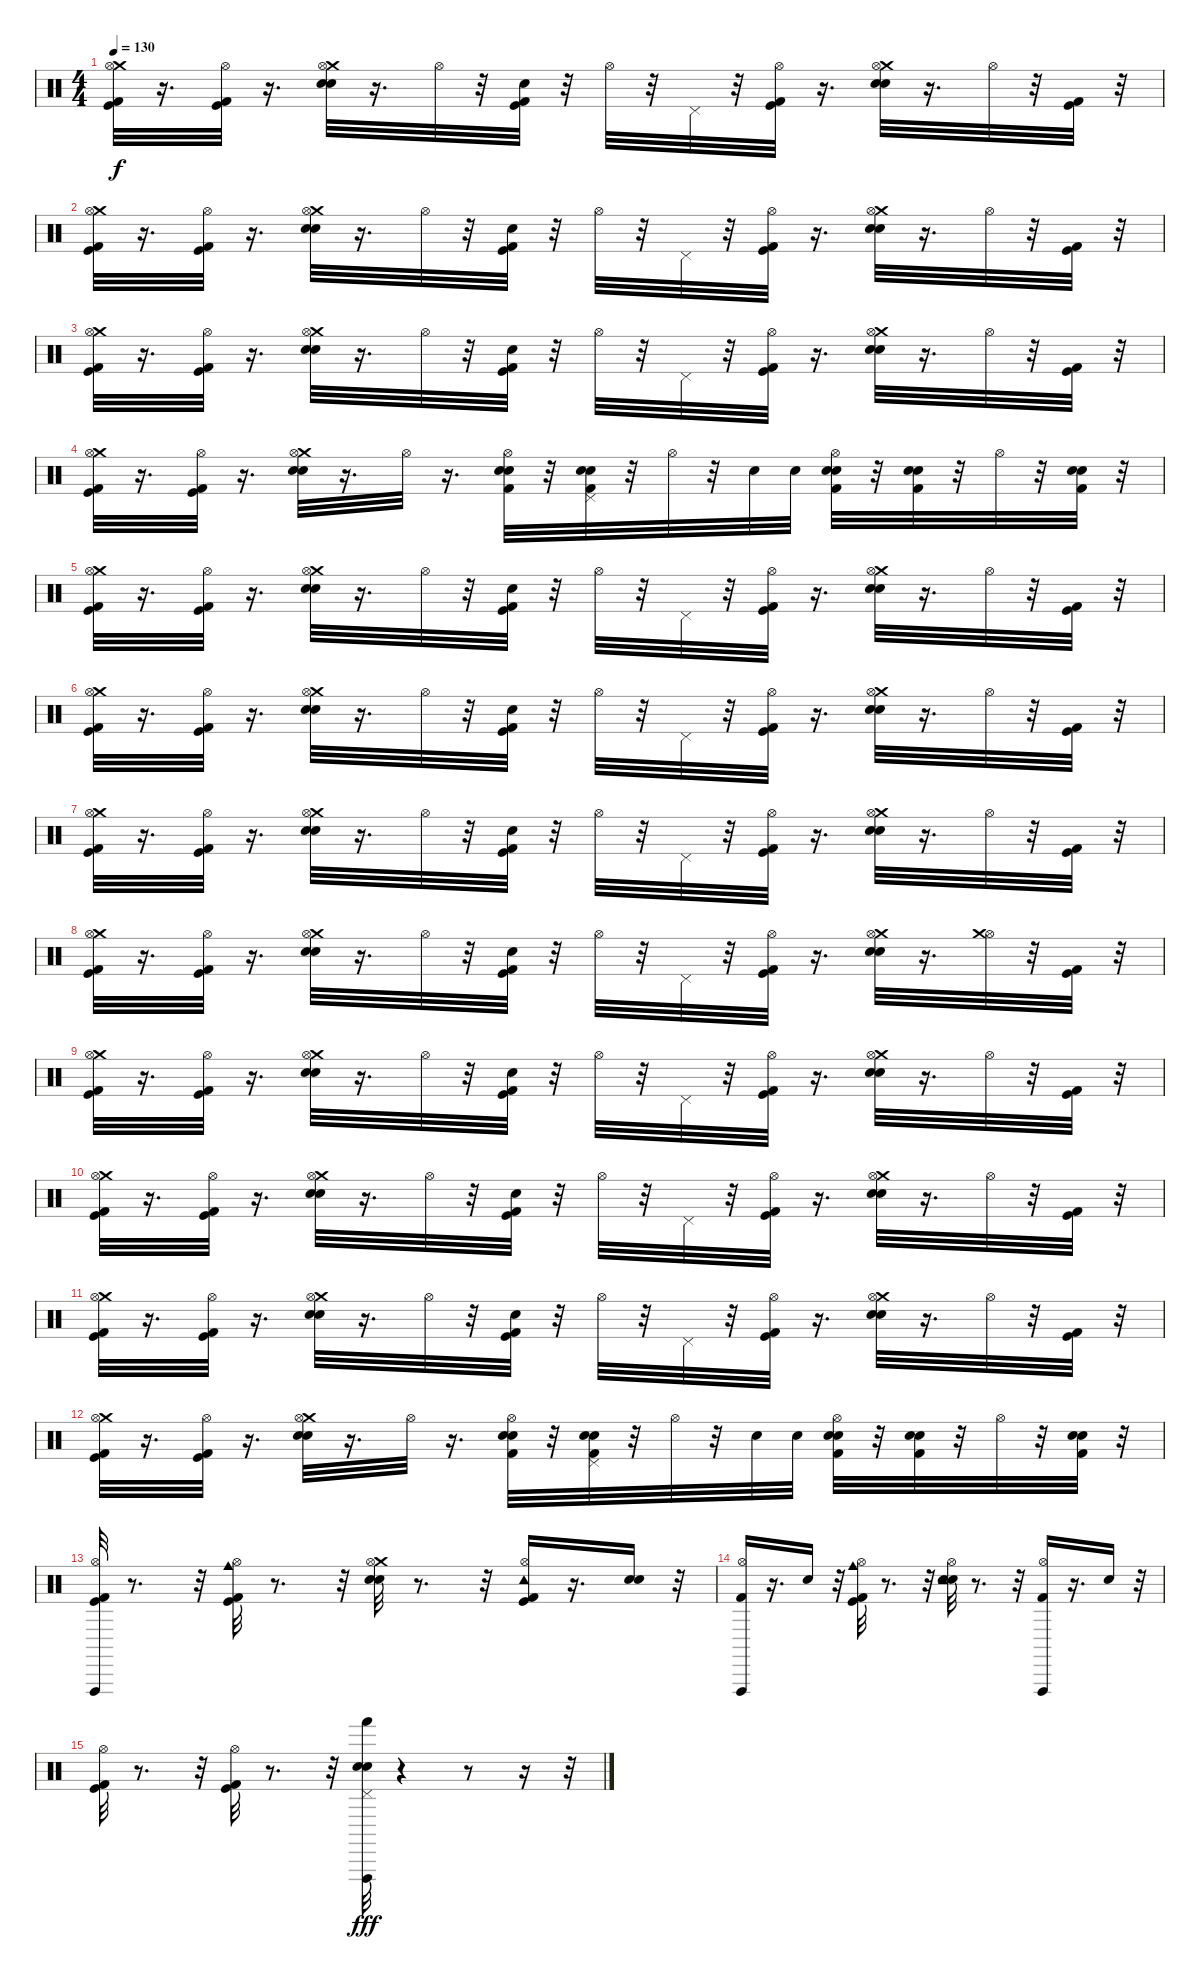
\track "" {instrument percussion}
\staff {score}
\articulation defaults
\ts (4 4)
\tempo 130
\clef neutral
\ks c
("Kick (hit) 2" "Kick (hit)" "Crash medium (hit)" "Hi-Hat (open)").32{dy f} r.16{d} ("Kick (hit) 2" "Kick (hit)" "Hi-Hat (open)").32 r.16{d} ("Snare (hit) 2" "Electric Snare (hit)" "Crash medium (hit)" "Hi-Hat (open)").32 r.16{d} "Hi-Hat (open)".32 r.32 ("Kick (hit) 2" "Kick (hit)" "Electric Snare (hit)").32 r.32 "Hi-Hat (open)".32 r.32 "Pedal Hi-Hat (hit)".32 r.32 ("Kick (hit) 2" "Kick (hit)" "Hi-Hat (open)").32 r.16{d} ("Snare (hit) 2" "Electric Snare (hit)" "Crash medium (hit)" "Hi-Hat (open)").32 r.16{d} "Hi-Hat (open)".32 r.32 ("Kick (hit) 2" "Kick (hit)").32 r.32 |
("Kick (hit) 2" "Kick (hit)" "Crash medium (hit)" "Hi-Hat (open)").32 r.16{d} ("Kick (hit) 2" "Kick (hit)" "Hi-Hat (open)").32 r.16{d} ("Snare (hit) 2" "Electric Snare (hit)" "Crash medium (hit)" "Hi-Hat (open)").32 r.16{d} "Hi-Hat (open)".32 r.32 ("Kick (hit) 2" "Kick (hit)" "Electric Snare (hit)").32 r.32 "Hi-Hat (open)".32 r.32 "Pedal Hi-Hat (hit)".32 r.32 ("Kick (hit) 2" "Kick (hit)" "Hi-Hat (open)").32 r.16{d} ("Snare (hit) 2" "Electric Snare (hit)" "Crash medium (hit)" "Hi-Hat (open)").32 r.16{d} "Hi-Hat (open)".32 r.32 ("Kick (hit) 2" "Kick (hit)").32 r.32 |
("Kick (hit) 2" "Kick (hit)" "Crash medium (hit)" "Hi-Hat (open)").32 r.16{d} ("Kick (hit) 2" "Kick (hit)" "Hi-Hat (open)").32 r.16{d} ("Snare (hit) 2" "Electric Snare (hit)" "Crash medium (hit)" "Hi-Hat (open)").32 r.16{d} "Hi-Hat (open)".32 r.32 ("Kick (hit) 2" "Kick (hit)" "Electric Snare (hit)").32 r.32 "Hi-Hat (open)".32 r.32 "Pedal Hi-Hat (hit)".32 r.32 ("Kick (hit) 2" "Kick (hit)" "Hi-Hat (open)").32 r.16{d} ("Snare (hit) 2" "Electric Snare (hit)" "Crash medium (hit)" "Hi-Hat (open)").32 r.16{d} "Hi-Hat (open)".32 r.32 ("Kick (hit) 2" "Kick (hit)").32 r.32 |
("Kick (hit) 2" "Kick (hit)" "Crash medium (hit)" "Hi-Hat (open)").32 r.16{d} ("Kick (hit) 2" "Kick (hit)" "Hi-Hat (open)").32 r.16{d} ("Snare (hit) 2" "Electric Snare (hit)" "Crash medium (hit)" "Hi-Hat (open)").32 r.16{d} "Hi-Hat (open)".32 r.16{d} ("Hi-Hat (open)" "Electric Snare (hit)" "Snare (hit) 2" "Kick (hit) 2").32 r.32 ("Electric Snare (hit)" "Snare (hit) 2" "Kick (hit) 2" "Pedal Hi-Hat (hit)").32 r.32 "Hi-Hat (open)".32 r.32 "Electric Snare (hit)".32 "Electric Snare (hit)".32 ("Hi-Hat (open)" "Snare (hit) 2" "Electric Snare (hit)" "Kick (hit) 2").32 r.32 ("Electric Snare (hit)" "Snare (hit) 2" "Kick (hit) 2").32 r.32 "Hi-Hat (open)".32 r.32 ("Electric Snare (hit)" "Snare (hit) 2" "Kick (hit) 2").32 r.32 |
("Kick (hit) 2" "Kick (hit)" "Crash medium (hit)" "Hi-Hat (open)").32 r.16{d} ("Kick (hit) 2" "Kick (hit)" "Hi-Hat (open)").32 r.16{d} ("Snare (hit) 2" "Electric Snare (hit)" "Crash medium (hit)" "Hi-Hat (open)").32 r.16{d} "Hi-Hat (open)".32 r.32 ("Kick (hit) 2" "Kick (hit)" "Electric Snare (hit)").32 r.32 "Hi-Hat (open)".32 r.32 "Pedal Hi-Hat (hit)".32 r.32 ("Kick (hit) 2" "Kick (hit)" "Hi-Hat (open)").32 r.16{d} ("Snare (hit) 2" "Electric Snare (hit)" "Crash medium (hit)" "Hi-Hat (open)").32 r.16{d} "Hi-Hat (open)".32 r.32 ("Kick (hit) 2" "Kick (hit)").32 r.32 |
("Kick (hit) 2" "Kick (hit)" "Crash medium (hit)" "Hi-Hat (open)").32 r.16{d} ("Kick (hit) 2" "Kick (hit)" "Hi-Hat (open)").32 r.16{d} ("Snare (hit) 2" "Electric Snare (hit)" "Crash medium (hit)" "Hi-Hat (open)").32 r.16{d} "Hi-Hat (open)".32 r.32 ("Kick (hit) 2" "Kick (hit)" "Electric Snare (hit)").32 r.32 "Hi-Hat (open)".32 r.32 "Pedal Hi-Hat (hit)".32 r.32 ("Kick (hit) 2" "Kick (hit)" "Hi-Hat (open)").32 r.16{d} ("Snare (hit) 2" "Electric Snare (hit)" "Crash medium (hit)" "Hi-Hat (open)").32 r.16{d} "Hi-Hat (open)".32 r.32 ("Kick (hit) 2" "Kick (hit)").32 r.32 |
("Kick (hit) 2" "Kick (hit)" "Crash medium (hit)" "Hi-Hat (open)").32 r.16{d} ("Kick (hit) 2" "Kick (hit)" "Hi-Hat (open)").32 r.16{d} ("Snare (hit) 2" "Electric Snare (hit)" "Crash medium (hit)" "Hi-Hat (open)").32 r.16{d} "Hi-Hat (open)".32 r.32 ("Kick (hit) 2" "Kick (hit)" "Electric Snare (hit)").32 r.32 "Hi-Hat (open)".32 r.32 "Pedal Hi-Hat (hit)".32 r.32 ("Kick (hit) 2" "Kick (hit)" "Hi-Hat (open)").32 r.16{d} ("Snare (hit) 2" "Electric Snare (hit)" "Crash medium (hit)" "Hi-Hat (open)").32 r.16{d} "Hi-Hat (open)".32 r.32 ("Kick (hit) 2" "Kick (hit)").32 r.32 |
("Kick (hit) 2" "Kick (hit)" "Crash medium (hit)" "Hi-Hat (open)").32 r.16{d} ("Kick (hit) 2" "Kick (hit)" "Hi-Hat (open)").32 r.16{d} ("Snare (hit) 2" "Electric Snare (hit)" "Crash medium (hit)" "Hi-Hat (open)").32 r.16{d} "Hi-Hat (open)".32 r.32 ("Kick (hit) 2" "Kick (hit)" "Electric Snare (hit)").32 r.32 "Hi-Hat (open)".32 r.32 "Pedal Hi-Hat (hit)".32 r.32 ("Kick (hit) 2" "Kick (hit)" "Hi-Hat (open)").32 r.16{d} ("Snare (hit) 2" "Electric Snare (hit)" "Crash medium (hit)" "Hi-Hat (open)").32 r.16{d} ("Hi-Hat (open)" "Crash medium (hit)").32 r.32 ("Kick (hit) 2" "Kick (hit)").32 r.32 |
("Kick (hit) 2" "Kick (hit)" "Crash medium (hit)" "Hi-Hat (open)").32 r.16{d} ("Kick (hit) 2" "Kick (hit)" "Hi-Hat (open)").32 r.16{d} ("Snare (hit) 2" "Electric Snare (hit)" "Crash medium (hit)" "Hi-Hat (open)").32 r.16{d} "Hi-Hat (open)".32 r.32 ("Kick (hit) 2" "Kick (hit)" "Electric Snare (hit)").32 r.32 "Hi-Hat (open)".32 r.32 "Pedal Hi-Hat (hit)".32 r.32 ("Kick (hit) 2" "Kick (hit)" "Hi-Hat (open)").32 r.16{d} ("Snare (hit) 2" "Electric Snare (hit)" "Crash medium (hit)" "Hi-Hat (open)").32 r.16{d} "Hi-Hat (open)".32 r.32 ("Kick (hit) 2" "Kick (hit)").32 r.32 |
("Kick (hit) 2" "Kick (hit)" "Crash medium (hit)" "Hi-Hat (open)").32 r.16{d} ("Kick (hit) 2" "Kick (hit)" "Hi-Hat (open)").32 r.16{d} ("Snare (hit) 2" "Electric Snare (hit)" "Crash medium (hit)" "Hi-Hat (open)").32 r.16{d} "Hi-Hat (open)".32 r.32 ("Kick (hit) 2" "Kick (hit)" "Electric Snare (hit)").32 r.32 "Hi-Hat (open)".32 r.32 "Pedal Hi-Hat (hit)".32 r.32 ("Kick (hit) 2" "Kick (hit)" "Hi-Hat (open)").32 r.16{d} ("Snare (hit) 2" "Electric Snare (hit)" "Crash medium (hit)" "Hi-Hat (open)").32 r.16{d} "Hi-Hat (open)".32 r.32 ("Kick (hit) 2" "Kick (hit)").32 r.32 |
("Kick (hit) 2" "Kick (hit)" "Crash medium (hit)" "Hi-Hat (open)").32 r.16{d} ("Kick (hit) 2" "Kick (hit)" "Hi-Hat (open)").32 r.16{d} ("Snare (hit) 2" "Electric Snare (hit)" "Crash medium (hit)" "Hi-Hat (open)").32 r.16{d} "Hi-Hat (open)".32 r.32 ("Kick (hit) 2" "Kick (hit)" "Electric Snare (hit)").32 r.32 "Hi-Hat (open)".32 r.32 "Pedal Hi-Hat (hit)".32 r.32 ("Kick (hit) 2" "Kick (hit)" "Hi-Hat (open)").32 r.16{d} ("Snare (hit) 2" "Electric Snare (hit)" "Crash medium (hit)" "Hi-Hat (open)").32 r.16{d} "Hi-Hat (open)".32 r.32 ("Kick (hit) 2" "Kick (hit)").32 r.32 |
("Kick (hit) 2" "Kick (hit)" "Crash medium (hit)" "Hi-Hat (open)").32 r.16{d} ("Kick (hit) 2" "Kick (hit)" "Hi-Hat (open)").32 r.16{d} ("Snare (hit) 2" "Electric Snare (hit)" "Crash medium (hit)" "Hi-Hat (open)").32 r.16{d} "Hi-Hat (open)".32 r.16{d} ("Hi-Hat (open)" "Electric Snare (hit)" "Snare (hit) 2" "Kick (hit) 2").32 r.32 ("Electric Snare (hit)" "Snare (hit) 2" "Kick (hit) 2" "Pedal Hi-Hat (hit)").32 r.32 "Hi-Hat (open)".32 r.32 "Electric Snare (hit)".32 "Electric Snare (hit)".32 ("Hi-Hat (open)" "Snare (hit) 2" "Electric Snare (hit)" "Kick (hit) 2").32 r.32 ("Electric Snare (hit)" "Snare (hit) 2" "Kick (hit) 2").32 r.32 "Hi-Hat (open)".32 r.32 ("Electric Snare (hit)" "Snare (hit) 2" "Kick (hit) 2").32 r.32 |
("Kick (hit) 2" "Kick (hit)" "Vibraslap (hit)" "Hi-Hat (open)").32 r.8{d} r.32 ("Kick (hit) 2" "Kick (hit)" "Cowbell medium (hit)" "Hi-Hat (open)").32 r.8{d} r.32 ("Electric Snare (hit)" "Snare (hit) 2" "Crash medium (hit)" "Hi-Hat (open)").32 r.8{d} r.32 ("Kick (hit) 2" "Kick (hit)" "Tambourine (hit)" "Hi-Hat (open)").16 r.16{d} ("Electric Snare (hit)" "Snare (hit) 2").16 r.32 |
("Kick (hit) 2" "Vibraslap (hit)" "Hi-Hat (open)").16 r.16{d} "Snare (hit) 2".16 r.32 ("Kick (hit) 2" "Kick (hit)" "Cowbell medium (hit)" "Hi-Hat (open)").32 r.8{d} r.32 ("Snare (hit) 2" "Electric Snare (hit)" "Tambourine (hit)" "Hi-Hat (open)").32 r.8{d} r.32 ("Kick (hit) 2" "Vibraslap (hit)" "Hi-Hat (open)").16 r.16{d} "Snare (hit) 2".16 r.32 |
("Kick (hit) 2" "Kick (hit)" "Hi-Hat (open)").32 r.8{d} r.32 ("Kick (hit)" "Kick (hit) 2" "Hi-Hat (open)").32 r.8{d} r.32 ("Electric Snare (hit)" "Snare (hit) 2" "Hand (hit)" "Vibraslap (hit)" "Pedal Hi-Hat (hit)").32{dy fff} r.4 r.8 r.16 r.32
